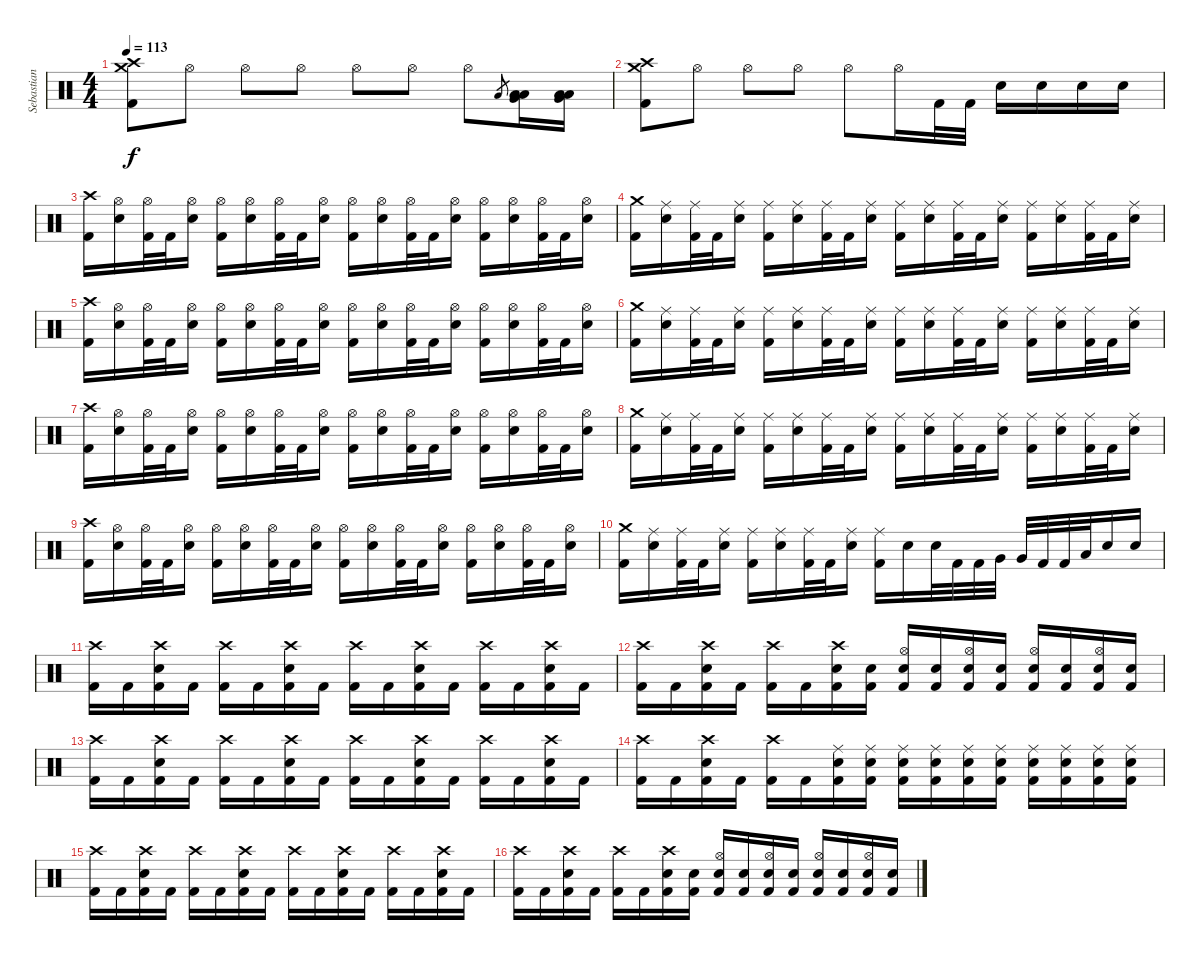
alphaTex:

\track ("Sebastian H." "Sebastian ") {instrument percussion}
\staff {score}
\articulation defaults
\ts (4 4)
\tempo 113
\clef neutral
\ks c
("Kick (hit) 2" "Crash medium (hit)" "Crash high (hit)").8{dy f} "Hi-Hat (open)".8 "Hi-Hat (open)".8 "Hi-Hat (open)".8 "Hi-Hat (open)".8 "Hi-Hat (open)".8 "Hi-Hat (open)".8 "Low Tom (hit)".8{gr} ("Low Floor Tom (hit)" "Very Low Tom (hit)" "Low Tom (hit)").16 ("Low Floor Tom (hit)" "Very Low Tom (hit)" "Low Tom (hit)").16 |
("Kick (hit) 2" "Crash medium (hit)" "Crash high (hit)").8 "Hi-Hat (open)".8 "Hi-Hat (open)".8 "Hi-Hat (open)".8 "Hi-Hat (open)".8 "Hi-Hat (open)".16 "Kick (hit) 2".32 "Kick (hit) 2".32 "Electric Snare (hit)".16 "Electric Snare (hit)".16 "Electric Snare (hit)".16 "Electric Snare (hit)".16 |
("Crash high (hit)" "Kick (hit) 2").16 ("Hi-Hat (open)" "Electric Snare (hit)").16 ("Hi-Hat (open)" "Kick (hit) 2").32 "Kick (hit) 2".32 ("Hi-Hat (open)" "Electric Snare (hit)").16 ("Hi-Hat (open)" "Kick (hit) 2").16 ("Hi-Hat (open)" "Electric Snare (hit)").16 ("Hi-Hat (open)" "Kick (hit) 2").32 "Kick (hit) 2".32 ("Hi-Hat (open)" "Electric Snare (hit)").16 ("Hi-Hat (open)" "Kick (hit) 2").16 ("Hi-Hat (open)" "Electric Snare (hit)").16 ("Hi-Hat (open)" "Kick (hit) 2").32 "Kick (hit) 2".32 ("Hi-Hat (open)" "Electric Snare (hit)").16 ("Hi-Hat (open)" "Kick (hit) 2").16 ("Hi-Hat (open)" "Electric Snare (hit)").16 ("Hi-Hat (open)" "Kick (hit) 2").32 "Kick (hit) 2".32 ("Hi-Hat (open)" "Electric Snare (hit)").16 |
("Crash medium (hit)" "Kick (hit) 2").16 ("Ride (middle)" "Electric Snare (hit)").16 ("Ride (middle)" "Kick (hit) 2").32 "Kick (hit) 2".32 ("Ride (middle)" "Electric Snare (hit)").16 ("Ride (middle)" "Kick (hit) 2").16 ("Ride (middle)" "Electric Snare (hit)").16 ("Ride (middle)" "Kick (hit) 2").32 "Kick (hit) 2".32 ("Ride (middle)" "Electric Snare (hit)").16 ("Ride (middle)" "Kick (hit) 2").16 ("Ride (middle)" "Electric Snare (hit)").16 ("Ride (middle)" "Kick (hit) 2").32 "Kick (hit) 2".32 ("Ride (middle)" "Electric Snare (hit)").16 ("Ride (middle)" "Kick (hit) 2").16 ("Ride (middle)" "Electric Snare (hit)").16 ("Ride (middle)" "Kick (hit) 2").32 "Kick (hit) 2".32 ("Ride (middle)" "Electric Snare (hit)").16 |
("Crash high (hit)" "Kick (hit) 2").16 ("Hi-Hat (open)" "Electric Snare (hit)").16 ("Hi-Hat (open)" "Kick (hit) 2").32 "Kick (hit) 2".32 ("Hi-Hat (open)" "Electric Snare (hit)").16 ("Hi-Hat (open)" "Kick (hit) 2").16 ("Hi-Hat (open)" "Electric Snare (hit)").16 ("Hi-Hat (open)" "Kick (hit) 2").32 "Kick (hit) 2".32 ("Hi-Hat (open)" "Electric Snare (hit)").16 ("Hi-Hat (open)" "Kick (hit) 2").16 ("Hi-Hat (open)" "Electric Snare (hit)").16 ("Hi-Hat (open)" "Kick (hit) 2").32 "Kick (hit) 2".32 ("Hi-Hat (open)" "Electric Snare (hit)").16 ("Hi-Hat (open)" "Kick (hit) 2").16 ("Hi-Hat (open)" "Electric Snare (hit)").16 ("Hi-Hat (open)" "Kick (hit) 2").32 "Kick (hit) 2".32 ("Hi-Hat (open)" "Electric Snare (hit)").16 |
("Crash medium (hit)" "Kick (hit) 2").16 ("Ride (middle)" "Electric Snare (hit)").16 ("Ride (middle)" "Kick (hit) 2").32 "Kick (hit) 2".32 ("Ride (middle)" "Electric Snare (hit)").16 ("Ride (middle)" "Kick (hit) 2").16 ("Ride (middle)" "Electric Snare (hit)").16 ("Ride (middle)" "Kick (hit) 2").32 "Kick (hit) 2".32 ("Ride (middle)" "Electric Snare (hit)").16 ("Ride (middle)" "Kick (hit) 2").16 ("Ride (middle)" "Electric Snare (hit)").16 ("Ride (middle)" "Kick (hit) 2").32 "Kick (hit) 2".32 ("Ride (middle)" "Electric Snare (hit)").16 ("Ride (middle)" "Kick (hit) 2").16 ("Ride (middle)" "Electric Snare (hit)").16 ("Ride (middle)" "Kick (hit) 2").32 "Kick (hit) 2".32 ("Ride (middle)" "Electric Snare (hit)").16 |
("Crash high (hit)" "Kick (hit) 2").16 ("Hi-Hat (open)" "Electric Snare (hit)").16 ("Hi-Hat (open)" "Kick (hit) 2").32 "Kick (hit) 2".32 ("Hi-Hat (open)" "Electric Snare (hit)").16 ("Hi-Hat (open)" "Kick (hit) 2").16 ("Hi-Hat (open)" "Electric Snare (hit)").16 ("Hi-Hat (open)" "Kick (hit) 2").32 "Kick (hit) 2".32 ("Hi-Hat (open)" "Electric Snare (hit)").16 ("Hi-Hat (open)" "Kick (hit) 2").16 ("Hi-Hat (open)" "Electric Snare (hit)").16 ("Hi-Hat (open)" "Kick (hit) 2").32 "Kick (hit) 2".32 ("Hi-Hat (open)" "Electric Snare (hit)").16 ("Hi-Hat (open)" "Kick (hit) 2").16 ("Hi-Hat (open)" "Electric Snare (hit)").16 ("Hi-Hat (open)" "Kick (hit) 2").32 "Kick (hit) 2".32 ("Hi-Hat (open)" "Electric Snare (hit)").16 |
("Crash medium (hit)" "Kick (hit) 2").16 ("Ride (middle)" "Electric Snare (hit)").16 ("Ride (middle)" "Kick (hit) 2").32 "Kick (hit) 2".32 ("Ride (middle)" "Electric Snare (hit)").16 ("Ride (middle)" "Kick (hit) 2").16 ("Ride (middle)" "Electric Snare (hit)").16 ("Ride (middle)" "Kick (hit) 2").32 "Kick (hit) 2".32 ("Ride (middle)" "Electric Snare (hit)").16 ("Ride (middle)" "Kick (hit) 2").16 ("Ride (middle)" "Electric Snare (hit)").16 ("Ride (middle)" "Kick (hit) 2").32 "Kick (hit) 2".32 ("Ride (middle)" "Electric Snare (hit)").16 ("Ride (middle)" "Kick (hit) 2").16 ("Ride (middle)" "Electric Snare (hit)").16 ("Ride (middle)" "Kick (hit) 2").32 "Kick (hit) 2".32 ("Ride (middle)" "Electric Snare (hit)").16 |
("Crash high (hit)" "Kick (hit) 2").16 ("Hi-Hat (open)" "Electric Snare (hit)").16 ("Hi-Hat (open)" "Kick (hit) 2").32 "Kick (hit) 2".32 ("Hi-Hat (open)" "Electric Snare (hit)").16 ("Hi-Hat (open)" "Kick (hit) 2").16 ("Hi-Hat (open)" "Electric Snare (hit)").16 ("Hi-Hat (open)" "Kick (hit) 2").32 "Kick (hit) 2".32 ("Hi-Hat (open)" "Electric Snare (hit)").16 ("Hi-Hat (open)" "Kick (hit) 2").16 ("Hi-Hat (open)" "Electric Snare (hit)").16 ("Hi-Hat (open)" "Kick (hit) 2").32 "Kick (hit) 2".32 ("Hi-Hat (open)" "Electric Snare (hit)").16 ("Hi-Hat (open)" "Kick (hit) 2").16 ("Hi-Hat (open)" "Electric Snare (hit)").16 ("Hi-Hat (open)" "Kick (hit) 2").32 "Kick (hit) 2".32 ("Hi-Hat (open)" "Electric Snare (hit)").16 |
("Crash medium (hit)" "Kick (hit) 2").16 ("Ride (middle)" "Electric Snare (hit)").16 ("Ride (middle)" "Kick (hit) 2").32 "Kick (hit) 2".32 ("Ride (middle)" "Electric Snare (hit)").16 ("Ride (middle)" "Kick (hit) 2").16 ("Ride (middle)" "Electric Snare (hit)").16 ("Ride (middle)" "Kick (hit) 2").32 "Kick (hit) 2".32 ("Ride (middle)" "Electric Snare (hit)").16 ("Ride (middle)" "Kick (hit) 2").16 "Electric Snare (hit)".16 "Electric Snare (hit)".32 "Kick (hit) 2".32 "Kick (hit) 2".32 "Very Low Tom (hit)".32 "Very Low Tom (hit)".32 "Kick (hit) 2".32 "Kick (hit) 2".32 "Low Floor Tom (hit)".32 "Electric Snare (hit)".16 "Electric Snare (hit)".16 |
("Crash high (hit)" "Kick (hit) 2").16 "Kick (hit) 2".16 ("Crash high (hit)" "Electric Snare (hit)" "Kick (hit) 2").16 "Kick (hit) 2".16 ("Crash high (hit)" "Kick (hit) 2").16 "Kick (hit) 2".16 ("Crash high (hit)" "Electric Snare (hit)" "Kick (hit) 2").16 "Kick (hit) 2".16 ("Crash high (hit)" "Kick (hit) 2").16 "Kick (hit) 2".16 ("Crash high (hit)" "Electric Snare (hit)" "Kick (hit) 2").16 "Kick (hit) 2".16 ("Crash high (hit)" "Kick (hit) 2").16 "Kick (hit) 2".16 ("Crash high (hit)" "Electric Snare (hit)" "Kick (hit) 2").16 "Kick (hit) 2".16 |
("Crash high (hit)" "Kick (hit) 2").16 "Kick (hit) 2".16 ("Crash high (hit)" "Electric Snare (hit)" "Kick (hit) 2").16 "Kick (hit) 2".16 ("Crash high (hit)" "Kick (hit) 2").16 "Kick (hit) 2".16 ("Crash high (hit)" "Electric Snare (hit)" "Kick (hit) 2").16 ("Electric Snare (hit)" "Kick (hit) 2").16 ("Hi-Hat (open)" "Electric Snare (hit)" "Kick (hit) 2").16 ("Electric Snare (hit)" "Kick (hit) 2").16 ("Hi-Hat (open)" "Electric Snare (hit)" "Kick (hit) 2").16 ("Electric Snare (hit)" "Kick (hit) 2").16 ("Hi-Hat (open)" "Electric Snare (hit)" "Kick (hit) 2").16 ("Electric Snare (hit)" "Kick (hit) 2").16 ("Hi-Hat (open)" "Electric Snare (hit)" "Kick (hit) 2").16 ("Electric Snare (hit)" "Kick (hit) 2").16 |
("Crash high (hit)" "Kick (hit) 2").16 "Kick (hit) 2".16 ("Crash high (hit)" "Electric Snare (hit)" "Kick (hit) 2").16 "Kick (hit) 2".16 ("Crash high (hit)" "Kick (hit) 2").16 "Kick (hit) 2".16 ("Crash high (hit)" "Electric Snare (hit)" "Kick (hit) 2").16 "Kick (hit) 2".16 ("Crash high (hit)" "Kick (hit) 2").16 "Kick (hit) 2".16 ("Crash high (hit)" "Electric Snare (hit)" "Kick (hit) 2").16 "Kick (hit) 2".16 ("Crash high (hit)" "Kick (hit) 2").16 "Kick (hit) 2".16 ("Crash high (hit)" "Electric Snare (hit)" "Kick (hit) 2").16 "Kick (hit) 2".16 |
("Crash high (hit)" "Kick (hit) 2").16 "Kick (hit) 2".16 ("Crash high (hit)" "Electric Snare (hit)" "Kick (hit) 2").16 "Kick (hit) 2".16 ("Crash high (hit)" "Kick (hit) 2").16 "Kick (hit) 2".16 ("Ride (middle)" "Electric Snare (hit)" "Kick (hit) 2").16 ("Ride (middle)" "Electric Snare (hit)" "Kick (hit) 2").16 ("Ride (middle)" "Electric Snare (hit)" "Kick (hit) 2").16 ("Ride (middle)" "Electric Snare (hit)" "Kick (hit) 2").16 ("Ride (middle)" "Electric Snare (hit)" "Kick (hit) 2").16 ("Ride (middle)" "Electric Snare (hit)" "Kick (hit) 2").16 ("Ride (middle)" "Electric Snare (hit)" "Kick (hit) 2").16 ("Ride (middle)" "Electric Snare (hit)" "Kick (hit) 2").16 ("Ride (middle)" "Electric Snare (hit)" "Kick (hit) 2").16 ("Ride (middle)" "Electric Snare (hit)" "Kick (hit) 2").16 |
("Crash high (hit)" "Kick (hit) 2").16 "Kick (hit) 2".16 ("Crash high (hit)" "Electric Snare (hit)" "Kick (hit) 2").16 "Kick (hit) 2".16 ("Crash high (hit)" "Kick (hit) 2").16 "Kick (hit) 2".16 ("Crash high (hit)" "Electric Snare (hit)" "Kick (hit) 2").16 "Kick (hit) 2".16 ("Crash high (hit)" "Kick (hit) 2").16 "Kick (hit) 2".16 ("Crash high (hit)" "Electric Snare (hit)" "Kick (hit) 2").16 "Kick (hit) 2".16 ("Crash high (hit)" "Kick (hit) 2").16 "Kick (hit) 2".16 ("Crash high (hit)" "Electric Snare (hit)" "Kick (hit) 2").16 "Kick (hit) 2".16 |
("Crash high (hit)" "Kick (hit) 2").16 "Kick (hit) 2".16 ("Crash high (hit)" "Electric Snare (hit)" "Kick (hit) 2").16 "Kick (hit) 2".16 ("Crash high (hit)" "Kick (hit) 2").16 "Kick (hit) 2".16 ("Crash high (hit)" "Electric Snare (hit)" "Kick (hit) 2").16 ("Electric Snare (hit)" "Kick (hit) 2").16 ("Hi-Hat (open)" "Electric Snare (hit)" "Kick (hit) 2").16 ("Electric Snare (hit)" "Kick (hit) 2").16 ("Hi-Hat (open)" "Electric Snare (hit)" "Kick (hit) 2").16 ("Electric Snare (hit)" "Kick (hit) 2").16 ("Hi-Hat (open)" "Electric Snare (hit)" "Kick (hit) 2").16 ("Electric Snare (hit)" "Kick (hit) 2").16 ("Hi-Hat (open)" "Electric Snare (hit)" "Kick (hit) 2").16 ("Electric Snare (hit)" "Kick (hit) 2").16
